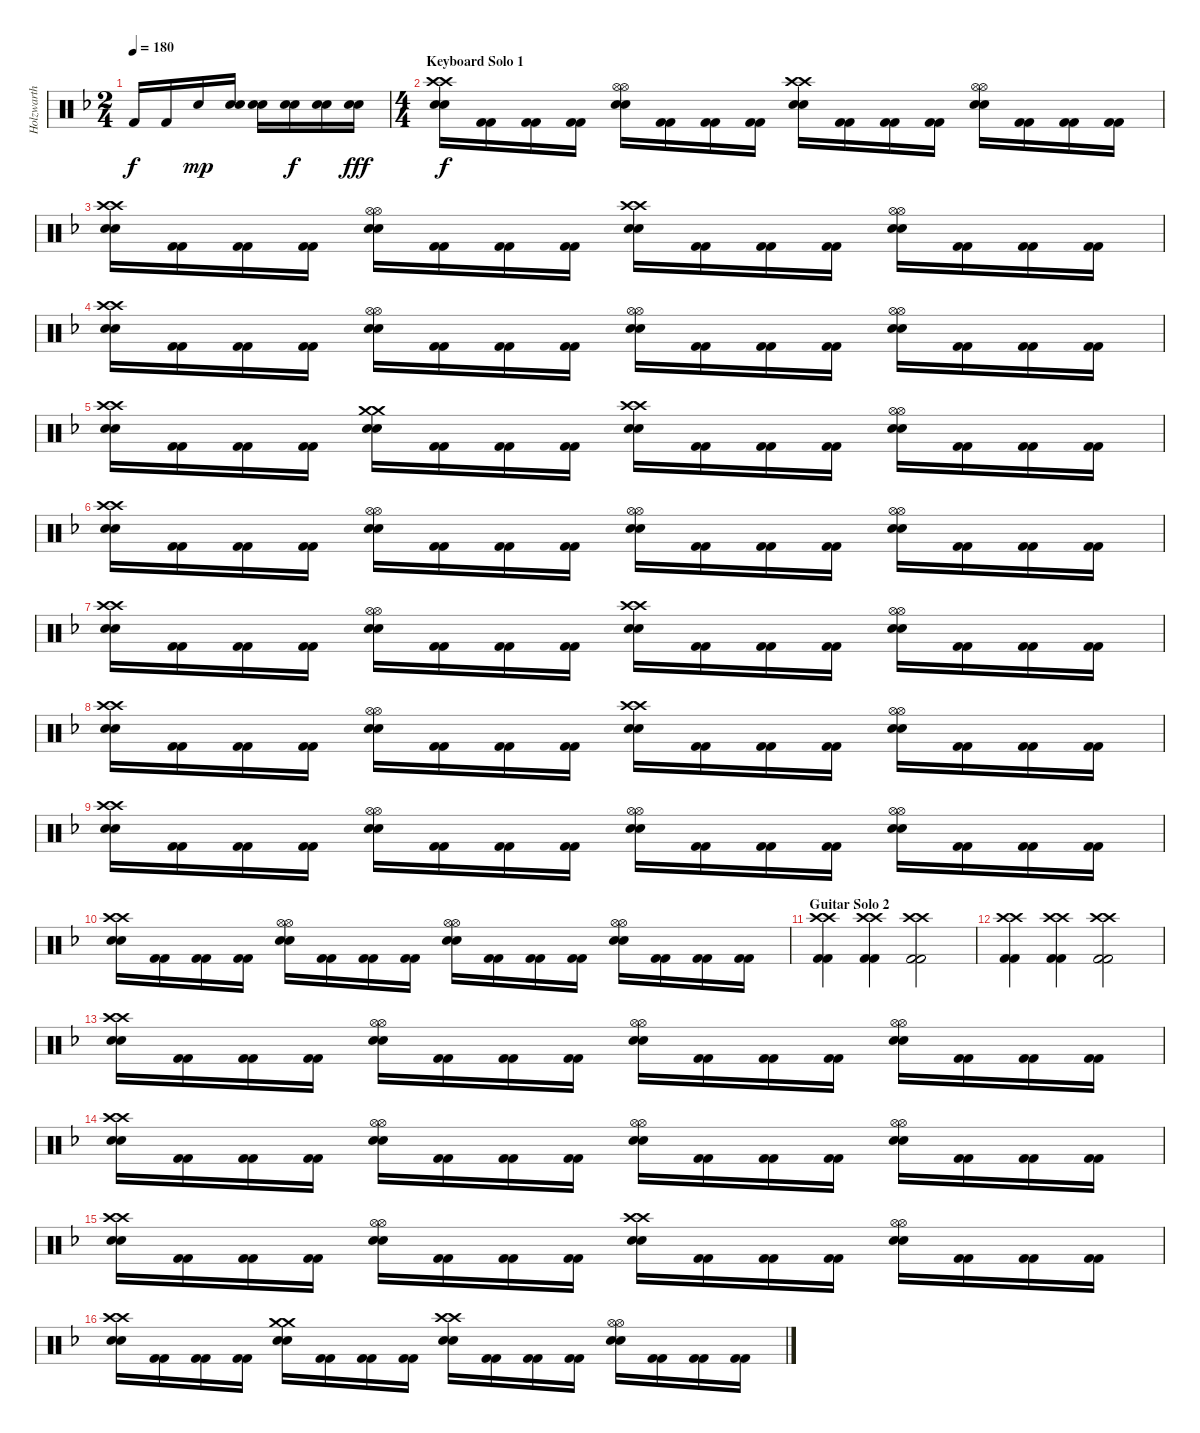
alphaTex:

\track ("Holzwarth" "Holzwarth") {instrument percussion}
\staff {score}
\articulation defaults
\ts (2 4)
\tempo 180
\clef neutral
\ks dminor "Kick (hit) 2".16{dy f} "Kick (hit) 2".16 "Snare (hit) 2".16{dy mp}
("Snare (hit) 2" "Snare (hit) 2").16 ("Snare (hit) 2" "Snare (hit) 2").16 ("Snare (hit) 2" "Snare (hit) 2").16{dy f} ("Snare (hit) 2" "Snare (hit) 2").16 ("Snare (hit) 2" "Snare (hit) 2").16{dy fff} |
\ts (4 4)
\section ("" "Keyboard Solo 1")
("Snare (hit) 2" "Snare (hit) 2" "Crash high (hit)" "Crash high (hit)").16{dy f} ("Kick (hit) 2" "Kick (hit) 2").16 ("Kick (hit) 2" "Kick (hit) 2").16 ("Kick (hit) 2" "Kick (hit) 2").16 ("Snare (hit) 2" "Snare (hit) 2" "Hi-Hat (open)" "Hi-Hat (open)").16 ("Kick (hit) 2" "Kick (hit) 2").16 ("Kick (hit) 2" "Kick (hit) 2").16 ("Kick (hit) 2" "Kick (hit) 2").16 ("Snare (hit) 2" "Snare (hit) 2" "Crash high (hit)" "Crash high (hit)").16 ("Kick (hit) 2" "Kick (hit) 2").16 ("Kick (hit) 2" "Kick (hit) 2").16 ("Kick (hit) 2" "Kick (hit) 2").16 ("Snare (hit) 2" "Snare (hit) 2" "Hi-Hat (open)" "Hi-Hat (open)").16 ("Kick (hit) 2" "Kick (hit) 2").16 ("Kick (hit) 2" "Kick (hit) 2").16 ("Kick (hit) 2" "Kick (hit) 2").16 |
("Snare (hit) 2" "Snare (hit) 2" "Crash high (hit)" "Crash high (hit)").16 ("Kick (hit) 2" "Kick (hit) 2").16 ("Kick (hit) 2" "Kick (hit) 2").16 ("Kick (hit) 2" "Kick (hit) 2").16 ("Snare (hit) 2" "Snare (hit) 2" "Hi-Hat (open)" "Hi-Hat (open)").16 ("Kick (hit) 2" "Kick (hit) 2").16 ("Kick (hit) 2" "Kick (hit) 2").16 ("Kick (hit) 2" "Kick (hit) 2").16 ("Snare (hit) 2" "Snare (hit) 2" "Crash high (hit)" "Crash high (hit)").16 ("Kick (hit) 2" "Kick (hit) 2").16 ("Kick (hit) 2" "Kick (hit) 2").16 ("Kick (hit) 2" "Kick (hit) 2").16 ("Snare (hit) 2" "Snare (hit) 2" "Hi-Hat (open)" "Hi-Hat (open)").16 ("Kick (hit) 2" "Kick (hit) 2").16 ("Kick (hit) 2" "Kick (hit) 2").16 ("Kick (hit) 2" "Kick (hit) 2").16 |
("Snare (hit) 2" "Snare (hit) 2" "Crash high (hit)" "Crash high (hit)").16 ("Kick (hit) 2" "Kick (hit) 2").16 ("Kick (hit) 2" "Kick (hit) 2").16 ("Kick (hit) 2" "Kick (hit) 2").16 ("Snare (hit) 2" "Snare (hit) 2" "Hi-Hat (open)" "Hi-Hat (open)").16 ("Kick (hit) 2" "Kick (hit) 2").16 ("Kick (hit) 2" "Kick (hit) 2").16 ("Kick (hit) 2" "Kick (hit) 2").16 ("Snare (hit) 2" "Snare (hit) 2" "Hi-Hat (open)" "Hi-Hat (open)").16 ("Kick (hit) 2" "Kick (hit) 2").16 ("Kick (hit) 2" "Kick (hit) 2").16 ("Kick (hit) 2" "Kick (hit) 2").16 ("Snare (hit) 2" "Snare (hit) 2" "Hi-Hat (open)" "Hi-Hat (open)").16 ("Kick (hit) 2" "Kick (hit) 2").16 ("Kick (hit) 2" "Kick (hit) 2").16 ("Kick (hit) 2" "Kick (hit) 2").16 |
("Snare (hit) 2" "Snare (hit) 2" "Crash high (hit)" "Crash high (hit)").16 ("Kick (hit) 2" "Kick (hit) 2").16 ("Kick (hit) 2" "Kick (hit) 2").16 ("Kick (hit) 2" "Kick (hit) 2").16 ("Snare (hit) 2" "Snare (hit) 2" "Crash medium (hit)" "Crash medium (hit)").16 ("Kick (hit) 2" "Kick (hit) 2").16 ("Kick (hit) 2" "Kick (hit) 2").16 ("Kick (hit) 2" "Kick (hit) 2").16 ("Snare (hit) 2" "Snare (hit) 2" "Crash high (hit)" "Crash high (hit)").16 ("Kick (hit) 2" "Kick (hit) 2").16 ("Kick (hit) 2" "Kick (hit) 2").16 ("Kick (hit) 2" "Kick (hit) 2").16 ("Snare (hit) 2" "Snare (hit) 2" "Hi-Hat (open)" "Hi-Hat (open)").16 ("Kick (hit) 2" "Kick (hit) 2").16 ("Kick (hit) 2" "Kick (hit) 2").16 ("Kick (hit) 2" "Kick (hit) 2").16 |
("Snare (hit) 2" "Snare (hit) 2" "Crash high (hit)" "Crash high (hit)").16 ("Kick (hit) 2" "Kick (hit) 2").16 ("Kick (hit) 2" "Kick (hit) 2").16 ("Kick (hit) 2" "Kick (hit) 2").16 ("Snare (hit) 2" "Snare (hit) 2" "Hi-Hat (open)" "Hi-Hat (open)").16 ("Kick (hit) 2" "Kick (hit) 2").16 ("Kick (hit) 2" "Kick (hit) 2").16 ("Kick (hit) 2" "Kick (hit) 2").16 ("Snare (hit) 2" "Snare (hit) 2" "Hi-Hat (open)" "Hi-Hat (open)").16 ("Kick (hit) 2" "Kick (hit) 2").16 ("Kick (hit) 2" "Kick (hit) 2").16 ("Kick (hit) 2" "Kick (hit) 2").16 ("Snare (hit) 2" "Snare (hit) 2" "Hi-Hat (open)" "Hi-Hat (open)").16 ("Kick (hit) 2" "Kick (hit) 2").16 ("Kick (hit) 2" "Kick (hit) 2").16 ("Kick (hit) 2" "Kick (hit) 2").16 |
("Snare (hit) 2" "Snare (hit) 2" "Crash high (hit)" "Crash high (hit)").16 ("Kick (hit) 2" "Kick (hit) 2").16 ("Kick (hit) 2" "Kick (hit) 2").16 ("Kick (hit) 2" "Kick (hit) 2").16 ("Snare (hit) 2" "Snare (hit) 2" "Hi-Hat (open)" "Hi-Hat (open)").16 ("Kick (hit) 2" "Kick (hit) 2").16 ("Kick (hit) 2" "Kick (hit) 2").16 ("Kick (hit) 2" "Kick (hit) 2").16 ("Snare (hit) 2" "Snare (hit) 2" "Crash high (hit)" "Crash high (hit)").16 ("Kick (hit) 2" "Kick (hit) 2").16 ("Kick (hit) 2" "Kick (hit) 2").16 ("Kick (hit) 2" "Kick (hit) 2").16 ("Snare (hit) 2" "Snare (hit) 2" "Hi-Hat (open)" "Hi-Hat (open)").16 ("Kick (hit) 2" "Kick (hit) 2").16 ("Kick (hit) 2" "Kick (hit) 2").16 ("Kick (hit) 2" "Kick (hit) 2").16 |
("Snare (hit) 2" "Snare (hit) 2" "Crash high (hit)" "Crash high (hit)").16 ("Kick (hit) 2" "Kick (hit) 2").16 ("Kick (hit) 2" "Kick (hit) 2").16 ("Kick (hit) 2" "Kick (hit) 2").16 ("Snare (hit) 2" "Snare (hit) 2" "Hi-Hat (open)" "Hi-Hat (open)").16 ("Kick (hit) 2" "Kick (hit) 2").16 ("Kick (hit) 2" "Kick (hit) 2").16 ("Kick (hit) 2" "Kick (hit) 2").16 ("Snare (hit) 2" "Snare (hit) 2" "Crash high (hit)" "Crash high (hit)").16 ("Kick (hit) 2" "Kick (hit) 2").16 ("Kick (hit) 2" "Kick (hit) 2").16 ("Kick (hit) 2" "Kick (hit) 2").16 ("Snare (hit) 2" "Snare (hit) 2" "Hi-Hat (open)" "Hi-Hat (open)").16 ("Kick (hit) 2" "Kick (hit) 2").16 ("Kick (hit) 2" "Kick (hit) 2").16 ("Kick (hit) 2" "Kick (hit) 2").16 |
("Snare (hit) 2" "Snare (hit) 2" "Crash high (hit)" "Crash high (hit)").16 ("Kick (hit) 2" "Kick (hit) 2").16 ("Kick (hit) 2" "Kick (hit) 2").16 ("Kick (hit) 2" "Kick (hit) 2").16 ("Snare (hit) 2" "Snare (hit) 2" "Hi-Hat (open)" "Hi-Hat (open)").16 ("Kick (hit) 2" "Kick (hit) 2").16 ("Kick (hit) 2" "Kick (hit) 2").16 ("Kick (hit) 2" "Kick (hit) 2").16 ("Snare (hit) 2" "Snare (hit) 2" "Hi-Hat (open)" "Hi-Hat (open)").16 ("Kick (hit) 2" "Kick (hit) 2").16 ("Kick (hit) 2" "Kick (hit) 2").16 ("Kick (hit) 2" "Kick (hit) 2").16 ("Snare (hit) 2" "Snare (hit) 2" "Hi-Hat (open)" "Hi-Hat (open)").16 ("Kick (hit) 2" "Kick (hit) 2").16 ("Kick (hit) 2" "Kick (hit) 2").16 ("Kick (hit) 2" "Kick (hit) 2").16 |
("Snare (hit) 2" "Snare (hit) 2" "Crash high (hit)" "Crash high (hit)").16 ("Kick (hit) 2" "Kick (hit) 2").16 ("Kick (hit) 2" "Kick (hit) 2").16 ("Kick (hit) 2" "Kick (hit) 2").16 ("Snare (hit) 2" "Snare (hit) 2" "Hi-Hat (open)" "Hi-Hat (open)").16 ("Kick (hit) 2" "Kick (hit) 2").16 ("Kick (hit) 2" "Kick (hit) 2").16 ("Kick (hit) 2" "Kick (hit) 2").16 ("Snare (hit) 2" "Snare (hit) 2" "Hi-Hat (open)" "Hi-Hat (open)").16 ("Kick (hit) 2" "Kick (hit) 2").16 ("Kick (hit) 2" "Kick (hit) 2").16 ("Kick (hit) 2" "Kick (hit) 2").16 ("Snare (hit) 2" "Snare (hit) 2" "Hi-Hat (open)" "Hi-Hat (open)").16 ("Kick (hit) 2" "Kick (hit) 2").16 ("Kick (hit) 2" "Kick (hit) 2").16 ("Kick (hit) 2" "Kick (hit) 2").16 |
\section ("" "Guitar Solo 2")
("Kick (hit) 2" "Kick (hit) 2" "Crash high (hit)" "Crash high (hit)").4 ("Kick (hit) 2" "Kick (hit) 2" "Crash high (hit)" "Crash high (hit)").4 ("Kick (hit) 2" "Kick (hit) 2" "Crash high (hit)" "Crash high (hit)").2 |
("Kick (hit) 2" "Kick (hit) 2" "Crash high (hit)" "Crash high (hit)").4 ("Kick (hit) 2" "Kick (hit) 2" "Crash high (hit)" "Crash high (hit)").4 ("Kick (hit) 2" "Kick (hit) 2" "Crash high (hit)" "Crash high (hit)").2 |
("Snare (hit) 2" "Snare (hit) 2" "Crash high (hit)" "Crash high (hit)").16 ("Kick (hit) 2" "Kick (hit) 2").16 ("Kick (hit) 2" "Kick (hit) 2").16 ("Kick (hit) 2" "Kick (hit) 2").16 ("Snare (hit) 2" "Snare (hit) 2" "Hi-Hat (open)" "Hi-Hat (open)").16 ("Kick (hit) 2" "Kick (hit) 2").16 ("Kick (hit) 2" "Kick (hit) 2").16 ("Kick (hit) 2" "Kick (hit) 2").16 ("Snare (hit) 2" "Snare (hit) 2" "Hi-Hat (open)" "Hi-Hat (open)").16 ("Kick (hit) 2" "Kick (hit) 2").16 ("Kick (hit) 2" "Kick (hit) 2").16 ("Kick (hit) 2" "Kick (hit) 2").16 ("Snare (hit) 2" "Snare (hit) 2" "Hi-Hat (open)" "Hi-Hat (open)").16 ("Kick (hit) 2" "Kick (hit) 2").16 ("Kick (hit) 2" "Kick (hit) 2").16 ("Kick (hit) 2" "Kick (hit) 2").16 |
("Snare (hit) 2" "Snare (hit) 2" "Crash high (hit)" "Crash high (hit)").16 ("Kick (hit) 2" "Kick (hit) 2").16 ("Kick (hit) 2" "Kick (hit) 2").16 ("Kick (hit) 2" "Kick (hit) 2").16 ("Snare (hit) 2" "Snare (hit) 2" "Hi-Hat (open)" "Hi-Hat (open)").16 ("Kick (hit) 2" "Kick (hit) 2").16 ("Kick (hit) 2" "Kick (hit) 2").16 ("Kick (hit) 2" "Kick (hit) 2").16 ("Snare (hit) 2" "Snare (hit) 2" "Hi-Hat (open)" "Hi-Hat (open)").16 ("Kick (hit) 2" "Kick (hit) 2").16 ("Kick (hit) 2" "Kick (hit) 2").16 ("Kick (hit) 2" "Kick (hit) 2").16 ("Snare (hit) 2" "Snare (hit) 2" "Hi-Hat (open)" "Hi-Hat (open)").16 ("Kick (hit) 2" "Kick (hit) 2").16 ("Kick (hit) 2" "Kick (hit) 2").16 ("Kick (hit) 2" "Kick (hit) 2").16 |
("Snare (hit) 2" "Snare (hit) 2" "Crash high (hit)" "Crash high (hit)").16 ("Kick (hit) 2" "Kick (hit) 2").16 ("Kick (hit) 2" "Kick (hit) 2").16 ("Kick (hit) 2" "Kick (hit) 2").16 ("Snare (hit) 2" "Snare (hit) 2" "Hi-Hat (open)" "Hi-Hat (open)").16 ("Kick (hit) 2" "Kick (hit) 2").16 ("Kick (hit) 2" "Kick (hit) 2").16 ("Kick (hit) 2" "Kick (hit) 2").16 ("Snare (hit) 2" "Snare (hit) 2" "Crash high (hit)" "Crash high (hit)").16 ("Kick (hit) 2" "Kick (hit) 2").16 ("Kick (hit) 2" "Kick (hit) 2").16 ("Kick (hit) 2" "Kick (hit) 2").16 ("Snare (hit) 2" "Snare (hit) 2" "Hi-Hat (open)" "Hi-Hat (open)").16 ("Kick (hit) 2" "Kick (hit) 2").16 ("Kick (hit) 2" "Kick (hit) 2").16 ("Kick (hit) 2" "Kick (hit) 2").16 |
("Snare (hit) 2" "Snare (hit) 2" "Crash high (hit)" "Crash high (hit)").16 ("Kick (hit) 2" "Kick (hit) 2").16 ("Kick (hit) 2" "Kick (hit) 2").16 ("Kick (hit) 2" "Kick (hit) 2").16 ("Snare (hit) 2" "Snare (hit) 2" "Crash medium (hit)" "Crash medium (hit)").16 ("Kick (hit) 2" "Kick (hit) 2").16 ("Kick (hit) 2" "Kick (hit) 2").16 ("Kick (hit) 2" "Kick (hit) 2").16 ("Snare (hit) 2" "Snare (hit) 2" "Crash high (hit)" "Crash high (hit)").16 ("Kick (hit) 2" "Kick (hit) 2").16 ("Kick (hit) 2" "Kick (hit) 2").16 ("Kick (hit) 2" "Kick (hit) 2").16 ("Snare (hit) 2" "Snare (hit) 2" "Hi-Hat (open)" "Hi-Hat (open)").16 ("Kick (hit) 2" "Kick (hit) 2").16 ("Kick (hit) 2" "Kick (hit) 2").16 ("Kick (hit) 2" "Kick (hit) 2").16
